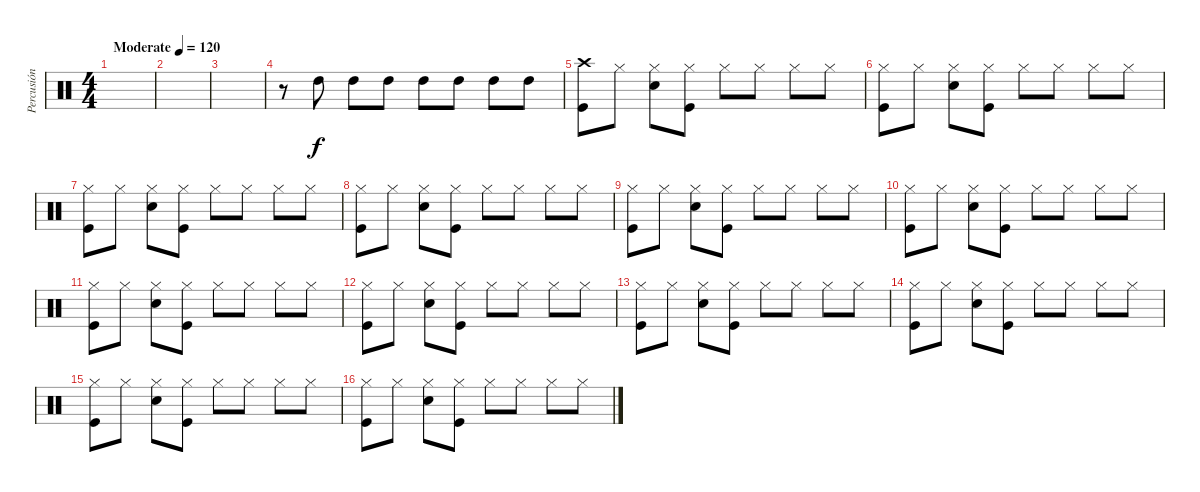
\track ("Percusión" "Percusión") {instrument percussion}
\staff {score}
\articulation defaults
\ts (4 4)
\tempo (120 "Moderate")
\clef neutral
\ks c
|
|
|
r.8 "High Tom (hit)".8 "High Tom (hit)".8 "High Tom (hit)".8 "High Tom (hit)".8 "High Tom (hit)".8 "High Tom (hit)".8 "High Tom (hit)".8 |
("Crash high (hit)" "Kick (hit)").8 "Hi-Hat (closed)".8 ("Hi-Hat (closed)" "Electric Snare (hit)").8 ("Hi-Hat (closed)" "Kick (hit)").8 "Hi-Hat (closed)".8 "Hi-Hat (closed)".8 "Hi-Hat (closed)".8 "Hi-Hat (closed)".8 |
("Hi-Hat (closed)" "Kick (hit)").8 "Hi-Hat (closed)".8 ("Hi-Hat (closed)" "Electric Snare (hit)").8 ("Hi-Hat (closed)" "Kick (hit)").8 "Hi-Hat (closed)".8 "Hi-Hat (closed)".8 "Hi-Hat (closed)".8 "Hi-Hat (closed)".8 |
("Hi-Hat (closed)" "Kick (hit)").8 "Hi-Hat (closed)".8 ("Hi-Hat (closed)" "Electric Snare (hit)").8 ("Hi-Hat (closed)" "Kick (hit)").8 "Hi-Hat (closed)".8 "Hi-Hat (closed)".8 "Hi-Hat (closed)".8 "Hi-Hat (closed)".8 |
("Hi-Hat (closed)" "Kick (hit)").8 "Hi-Hat (closed)".8 ("Hi-Hat (closed)" "Electric Snare (hit)").8 ("Hi-Hat (closed)" "Kick (hit)").8 "Hi-Hat (closed)".8 "Hi-Hat (closed)".8 "Hi-Hat (closed)".8 "Hi-Hat (closed)".8 |
("Hi-Hat (closed)" "Kick (hit)").8 "Hi-Hat (closed)".8 ("Hi-Hat (closed)" "Electric Snare (hit)").8 ("Hi-Hat (closed)" "Kick (hit)").8 "Hi-Hat (closed)".8 "Hi-Hat (closed)".8 "Hi-Hat (closed)".8 "Hi-Hat (closed)".8 |
("Hi-Hat (closed)" "Kick (hit)").8 "Hi-Hat (closed)".8 ("Hi-Hat (closed)" "Electric Snare (hit)").8 ("Hi-Hat (closed)" "Kick (hit)").8 "Hi-Hat (closed)".8 "Hi-Hat (closed)".8 "Hi-Hat (closed)".8 "Hi-Hat (closed)".8 |
("Hi-Hat (closed)" "Kick (hit)").8 "Hi-Hat (closed)".8 ("Hi-Hat (closed)" "Electric Snare (hit)").8 ("Hi-Hat (closed)" "Kick (hit)").8 "Hi-Hat (closed)".8 "Hi-Hat (closed)".8 "Hi-Hat (closed)".8 "Hi-Hat (closed)".8 |
("Hi-Hat (closed)" "Kick (hit)").8 "Hi-Hat (closed)".8 ("Hi-Hat (closed)" "Electric Snare (hit)").8 ("Hi-Hat (closed)" "Kick (hit)").8 "Hi-Hat (closed)".8 "Hi-Hat (closed)".8 "Hi-Hat (closed)".8 "Hi-Hat (closed)".8 |
("Hi-Hat (closed)" "Kick (hit)").8 "Hi-Hat (closed)".8 ("Hi-Hat (closed)" "Electric Snare (hit)").8 ("Hi-Hat (closed)" "Kick (hit)").8 "Hi-Hat (closed)".8 "Hi-Hat (closed)".8 "Hi-Hat (closed)".8 "Hi-Hat (closed)".8 |
("Hi-Hat (closed)" "Kick (hit)").8 "Hi-Hat (closed)".8 ("Hi-Hat (closed)" "Electric Snare (hit)").8 ("Hi-Hat (closed)" "Kick (hit)").8 "Hi-Hat (closed)".8 "Hi-Hat (closed)".8 "Hi-Hat (closed)".8 "Hi-Hat (closed)".8 |
("Hi-Hat (closed)" "Kick (hit)").8 "Hi-Hat (closed)".8 ("Hi-Hat (closed)" "Electric Snare (hit)").8 ("Hi-Hat (closed)" "Kick (hit)").8 "Hi-Hat (closed)".8 "Hi-Hat (closed)".8 "Hi-Hat (closed)".8 "Hi-Hat (closed)".8 |
("Hi-Hat (closed)" "Kick (hit)").8 "Hi-Hat (closed)".8 ("Hi-Hat (closed)" "Electric Snare (hit)").8 ("Hi-Hat (closed)" "Kick (hit)").8 "Hi-Hat (closed)".8 "Hi-Hat (closed)".8 "Hi-Hat (closed)".8 "Hi-Hat (closed)".8
